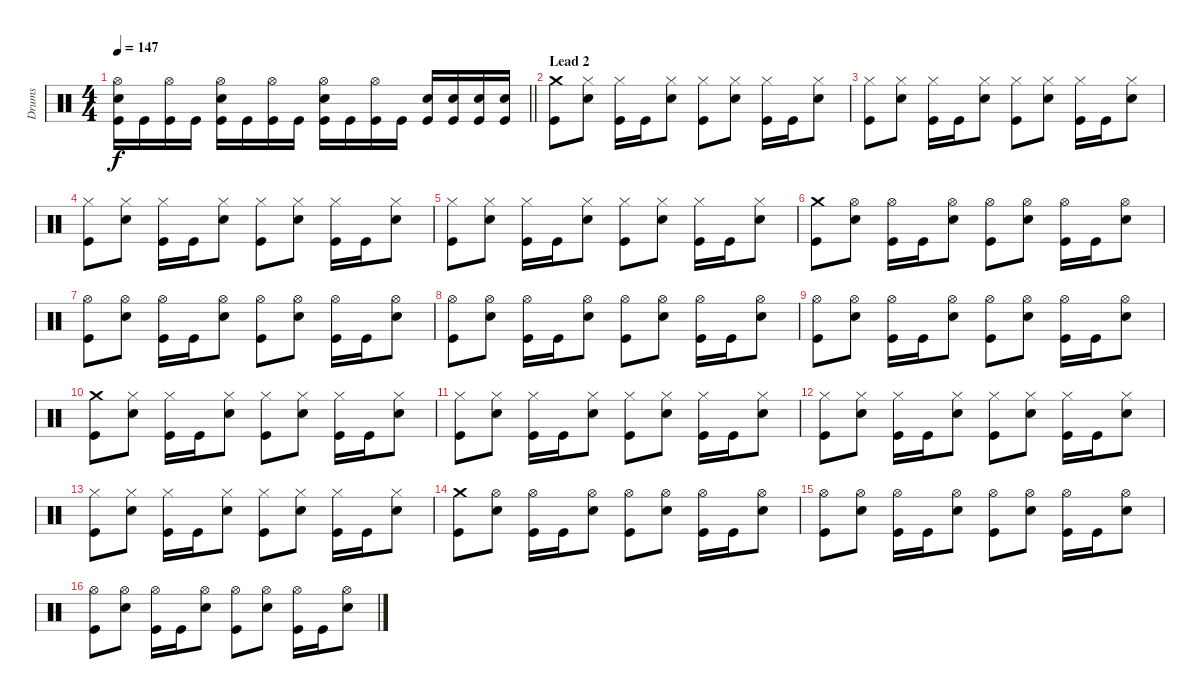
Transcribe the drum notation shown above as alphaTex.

\track ("Drums" "Drums") {instrument percussion}
\staff {score}
\articulation defaults
\ts (4 4)
\tempo 147
\clef neutral
\barLineRight lightlight
\ks c
("Electric Snare (hit)" "Hi-Hat (open)" "Kick (hit)").16{dy f} "Kick (hit)".16 ("Hi-Hat (open)" "Kick (hit)").16 "Kick (hit)".16 ("Electric Snare (hit)" "Hi-Hat (open)" "Kick (hit)").16 "Kick (hit)".16 ("Hi-Hat (open)" "Kick (hit)").16 "Kick (hit)".16 ("Electric Snare (hit)" "Hi-Hat (open)" "Kick (hit)").16 "Kick (hit)".16 ("Hi-Hat (open)" "Kick (hit)").16 "Kick (hit)".16 ("Electric Snare (hit)" "Kick (hit)").16 ("Electric Snare (hit)" "Kick (hit)").16 ("Electric Snare (hit)" "Kick (hit)").16 ("Electric Snare (hit)" "Kick (hit)").16 |
\section ("" "Lead 2")
("Crash medium (hit)" "Kick (hit)").8 ("Hi-Hat (closed)" "Electric Snare (hit)").8 ("Hi-Hat (closed)" "Kick (hit)").16 "Kick (hit)".16 ("Hi-Hat (closed)" "Electric Snare (hit)").8 ("Hi-Hat (closed)" "Kick (hit)").8 ("Hi-Hat (closed)" "Electric Snare (hit)").8 ("Hi-Hat (closed)" "Kick (hit)").16 "Kick (hit)".16 ("Hi-Hat (closed)" "Electric Snare (hit)").8 |
("Hi-Hat (closed)" "Kick (hit)").8 ("Hi-Hat (closed)" "Electric Snare (hit)").8 ("Hi-Hat (closed)" "Kick (hit)").16 "Kick (hit)".16 ("Hi-Hat (closed)" "Electric Snare (hit)").8 ("Hi-Hat (closed)" "Kick (hit)").8 ("Hi-Hat (closed)" "Electric Snare (hit)").8 ("Hi-Hat (closed)" "Kick (hit)").16 "Kick (hit)".16 ("Hi-Hat (closed)" "Electric Snare (hit)").8 |
("Hi-Hat (closed)" "Kick (hit)").8 ("Hi-Hat (closed)" "Electric Snare (hit)").8 ("Hi-Hat (closed)" "Kick (hit)").16 "Kick (hit)".16 ("Hi-Hat (closed)" "Electric Snare (hit)").8 ("Hi-Hat (closed)" "Kick (hit)").8 ("Hi-Hat (closed)" "Electric Snare (hit)").8 ("Hi-Hat (closed)" "Kick (hit)").16 "Kick (hit)".16 ("Hi-Hat (closed)" "Electric Snare (hit)").8 |
("Hi-Hat (closed)" "Kick (hit)").8 ("Hi-Hat (closed)" "Electric Snare (hit)").8 ("Hi-Hat (closed)" "Kick (hit)").16 "Kick (hit)".16 ("Hi-Hat (closed)" "Electric Snare (hit)").8 ("Hi-Hat (closed)" "Kick (hit)").8 ("Hi-Hat (closed)" "Electric Snare (hit)").8 ("Hi-Hat (closed)" "Kick (hit)").16 "Kick (hit)".16 ("Hi-Hat (closed)" "Electric Snare (hit)").8 |
("Crash medium (hit)" "Kick (hit)").8 ("Hi-Hat (open)" "Electric Snare (hit)").8 ("Hi-Hat (open)" "Kick (hit)").16 "Kick (hit)".16 ("Hi-Hat (open)" "Electric Snare (hit)").8 ("Hi-Hat (open)" "Kick (hit)").8 ("Hi-Hat (open)" "Electric Snare (hit)").8 ("Hi-Hat (open)" "Kick (hit)").16 "Kick (hit)".16 ("Hi-Hat (open)" "Electric Snare (hit)").8 |
("Hi-Hat (open)" "Kick (hit)").8 ("Hi-Hat (open)" "Electric Snare (hit)").8 ("Hi-Hat (open)" "Kick (hit)").16 "Kick (hit)".16 ("Hi-Hat (open)" "Electric Snare (hit)").8 ("Hi-Hat (open)" "Kick (hit)").8 ("Hi-Hat (open)" "Electric Snare (hit)").8 ("Hi-Hat (open)" "Kick (hit)").16 "Kick (hit)".16 ("Hi-Hat (open)" "Electric Snare (hit)").8 |
("Hi-Hat (open)" "Kick (hit)").8 ("Hi-Hat (open)" "Electric Snare (hit)").8 ("Hi-Hat (open)" "Kick (hit)").16 "Kick (hit)".16 ("Hi-Hat (open)" "Electric Snare (hit)").8 ("Hi-Hat (open)" "Kick (hit)").8 ("Hi-Hat (open)" "Electric Snare (hit)").8 ("Hi-Hat (open)" "Kick (hit)").16 "Kick (hit)".16 ("Hi-Hat (open)" "Electric Snare (hit)").8 |
("Hi-Hat (open)" "Kick (hit)").8 ("Hi-Hat (open)" "Electric Snare (hit)").8 ("Hi-Hat (open)" "Kick (hit)").16 "Kick (hit)".16 ("Hi-Hat (open)" "Electric Snare (hit)").8 ("Hi-Hat (open)" "Kick (hit)").8 ("Hi-Hat (open)" "Electric Snare (hit)").8 ("Hi-Hat (open)" "Kick (hit)").16 "Kick (hit)".16 ("Hi-Hat (open)" "Electric Snare (hit)").8 |
("Crash medium (hit)" "Kick (hit)").8 ("Hi-Hat (closed)" "Electric Snare (hit)").8 ("Hi-Hat (closed)" "Kick (hit)").16 "Kick (hit)".16 ("Hi-Hat (closed)" "Electric Snare (hit)").8 ("Hi-Hat (closed)" "Kick (hit)").8 ("Hi-Hat (closed)" "Electric Snare (hit)").8 ("Hi-Hat (closed)" "Kick (hit)").16 "Kick (hit)".16 ("Hi-Hat (closed)" "Electric Snare (hit)").8 |
("Hi-Hat (closed)" "Kick (hit)").8 ("Hi-Hat (closed)" "Electric Snare (hit)").8 ("Hi-Hat (closed)" "Kick (hit)").16 "Kick (hit)".16 ("Hi-Hat (closed)" "Electric Snare (hit)").8 ("Hi-Hat (closed)" "Kick (hit)").8 ("Hi-Hat (closed)" "Electric Snare (hit)").8 ("Hi-Hat (closed)" "Kick (hit)").16 "Kick (hit)".16 ("Hi-Hat (closed)" "Electric Snare (hit)").8 |
("Hi-Hat (closed)" "Kick (hit)").8 ("Hi-Hat (closed)" "Electric Snare (hit)").8 ("Hi-Hat (closed)" "Kick (hit)").16 "Kick (hit)".16 ("Hi-Hat (closed)" "Electric Snare (hit)").8 ("Hi-Hat (closed)" "Kick (hit)").8 ("Hi-Hat (closed)" "Electric Snare (hit)").8 ("Hi-Hat (closed)" "Kick (hit)").16 "Kick (hit)".16 ("Hi-Hat (closed)" "Electric Snare (hit)").8 |
("Hi-Hat (closed)" "Kick (hit)").8 ("Hi-Hat (closed)" "Electric Snare (hit)").8 ("Hi-Hat (closed)" "Kick (hit)").16 "Kick (hit)".16 ("Hi-Hat (closed)" "Electric Snare (hit)").8 ("Hi-Hat (closed)" "Kick (hit)").8 ("Hi-Hat (closed)" "Electric Snare (hit)").8 ("Hi-Hat (closed)" "Kick (hit)").16 "Kick (hit)".16 ("Hi-Hat (closed)" "Electric Snare (hit)").8 |
("Crash medium (hit)" "Kick (hit)").8 ("Hi-Hat (open)" "Electric Snare (hit)").8 ("Hi-Hat (open)" "Kick (hit)").16 "Kick (hit)".16 ("Hi-Hat (open)" "Electric Snare (hit)").8 ("Hi-Hat (open)" "Kick (hit)").8 ("Hi-Hat (open)" "Electric Snare (hit)").8 ("Hi-Hat (open)" "Kick (hit)").16 "Kick (hit)".16 ("Hi-Hat (open)" "Electric Snare (hit)").8 |
("Hi-Hat (open)" "Kick (hit)").8 ("Hi-Hat (open)" "Electric Snare (hit)").8 ("Hi-Hat (open)" "Kick (hit)").16 "Kick (hit)".16 ("Hi-Hat (open)" "Electric Snare (hit)").8 ("Hi-Hat (open)" "Kick (hit)").8 ("Hi-Hat (open)" "Electric Snare (hit)").8 ("Hi-Hat (open)" "Kick (hit)").16 "Kick (hit)".16 ("Hi-Hat (open)" "Electric Snare (hit)").8 |
("Hi-Hat (open)" "Kick (hit)").8 ("Hi-Hat (open)" "Electric Snare (hit)").8 ("Hi-Hat (open)" "Kick (hit)").16 "Kick (hit)".16 ("Hi-Hat (open)" "Electric Snare (hit)").8 ("Hi-Hat (open)" "Kick (hit)").8 ("Hi-Hat (open)" "Electric Snare (hit)").8 ("Hi-Hat (open)" "Kick (hit)").16 "Kick (hit)".16 ("Hi-Hat (open)" "Electric Snare (hit)").8
